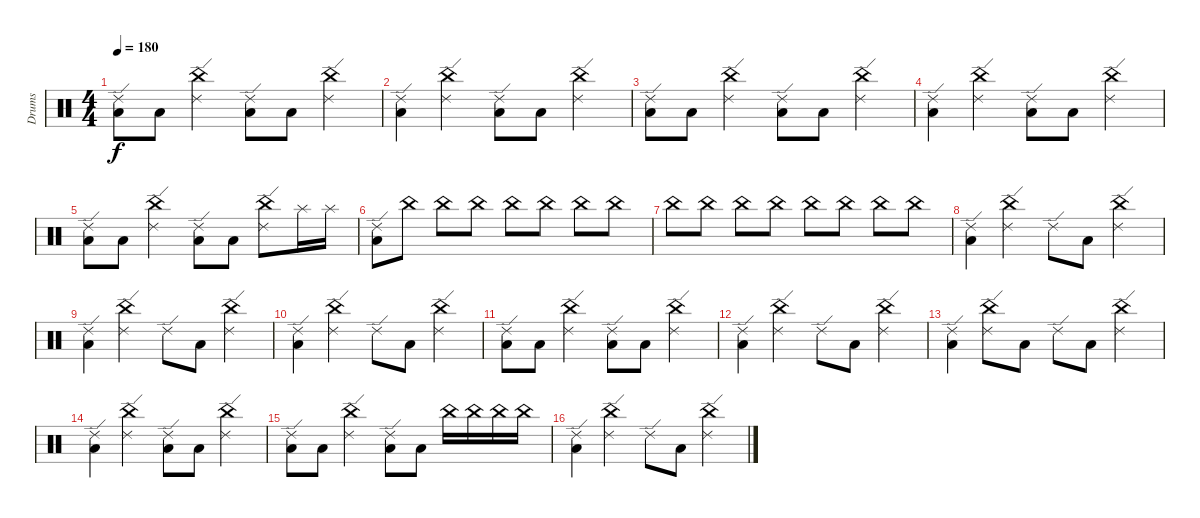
\track ("Drums" "Drums") {instrument percussion}
\staff {score}
\articulation defaults
\ts (4 4)
\tempo 180
\clef neutral
\ks c
("Low Tom (hit)" "Ride (edge) 2").8{dy f} "Low Tom (hit)".8 ("China (hit)" "Ride (edge) 2").4 ("Low Tom (hit)" "Ride (edge) 2").8 "Low Tom (hit)".8 ("China (hit)" "Ride (edge) 2").4 |
("Ride (edge) 2" "Low Tom (hit)").4 ("Ride (edge) 2" "China (hit)").4 ("Ride (edge) 2" "Low Tom (hit)").8 "Low Tom (hit)".8 ("Ride (edge) 2" "China (hit)").4 |
("Low Tom (hit)" "Ride (edge) 2").8 "Low Tom (hit)".8 ("Ride (edge) 2" "China (hit)").4 ("Ride (edge) 2" "Low Tom (hit)").8 "Low Tom (hit)".8 ("Ride (edge) 2" "China (hit)").4 |
("Low Tom (hit)" "Ride (edge) 2").4 ("China (hit)" "Ride (edge) 2").4 ("Low Tom (hit)" "Ride (edge) 2").8 "Low Tom (hit)".8 ("China (hit)" "Ride (edge) 2").4 |
("Low Tom (hit)" "Ride (edge) 2").8 "Low Tom (hit)".8 ("China (hit)" "Ride (edge) 2").4 ("Low Tom (hit)" "Ride (edge) 2").8 "Low Tom (hit)".8 ("China (hit)" "Ride (edge) 2").8 "Splash (hit)".16 "Splash (hit)".16 |
("Low Tom (hit)" "Ride (edge) 2").8 "China (hit)".8 "China (hit)".8 "China (hit)".8 "China (hit)".8 "China (hit)".8 "China (hit)".8 "China (hit)".8 |
"China (hit)".8 "China (hit)".8 "China (hit)".8 "China (hit)".8 "China (hit)".8 "China (hit)".8 "China (hit)".8 "China (hit)".8 |
("Low Tom (hit)" "Ride (edge) 2").4 ("Ride (edge) 2" "China (hit)").4 "Ride (edge) 2".8 "Low Tom (hit)".8 ("Ride (edge) 2" "China (hit)").4 |
("Low Tom (hit)" "Ride (edge) 2").4 ("Ride (edge) 2" "China (hit)").4 "Ride (edge) 2".8 "Low Tom (hit)".8 ("Ride (edge) 2" "China (hit)").4 |
("Low Tom (hit)" "Ride (edge) 2").4 ("China (hit)" "Ride (edge) 2").4 "Ride (edge) 2".8 "Low Tom (hit)".8 ("China (hit)" "Ride (edge) 2").4 |
("Low Tom (hit)" "Ride (edge) 2").8 "Low Tom (hit)".8 ("China (hit)" "Ride (edge) 2").4 ("Low Tom (hit)" "Ride (edge) 2").8 "Low Tom (hit)".8 ("China (hit)" "Ride (edge) 2").4 |
("Low Tom (hit)" "Ride (edge) 2").4 ("China (hit)" "Ride (edge) 2").4 "Ride (edge) 2".8 "Low Tom (hit)".8 ("China (hit)" "Ride (edge) 2").4 |
("Low Tom (hit)" "Ride (edge) 2").4 ("China (hit)" "Ride (edge) 2").8 "Low Tom (hit)".8 "Ride (edge) 2".8 "Low Tom (hit)".8 ("China (hit)" "Ride (edge) 2").4 |
("Low Tom (hit)" "Ride (edge) 2").4 ("China (hit)" "Ride (edge) 2").4 ("Low Tom (hit)" "Ride (edge) 2").8 "Low Tom (hit)".8 ("China (hit)" "Ride (edge) 2").4 |
("Low Tom (hit)" "Ride (edge) 2").8 "Low Tom (hit)".8 ("China (hit)" "Ride (edge) 2").4 ("Low Tom (hit)" "Ride (edge) 2").8 "Low Tom (hit)".8 "China (hit)".16 "China (hit)".16 "China (hit)".16 "China (hit)".16 |
("Low Tom (hit)" "Ride (edge) 2").4 ("China (hit)" "Ride (edge) 2").4 "Ride (edge) 2".8 "Low Tom (hit)".8 ("China (hit)" "Ride (edge) 2").4
